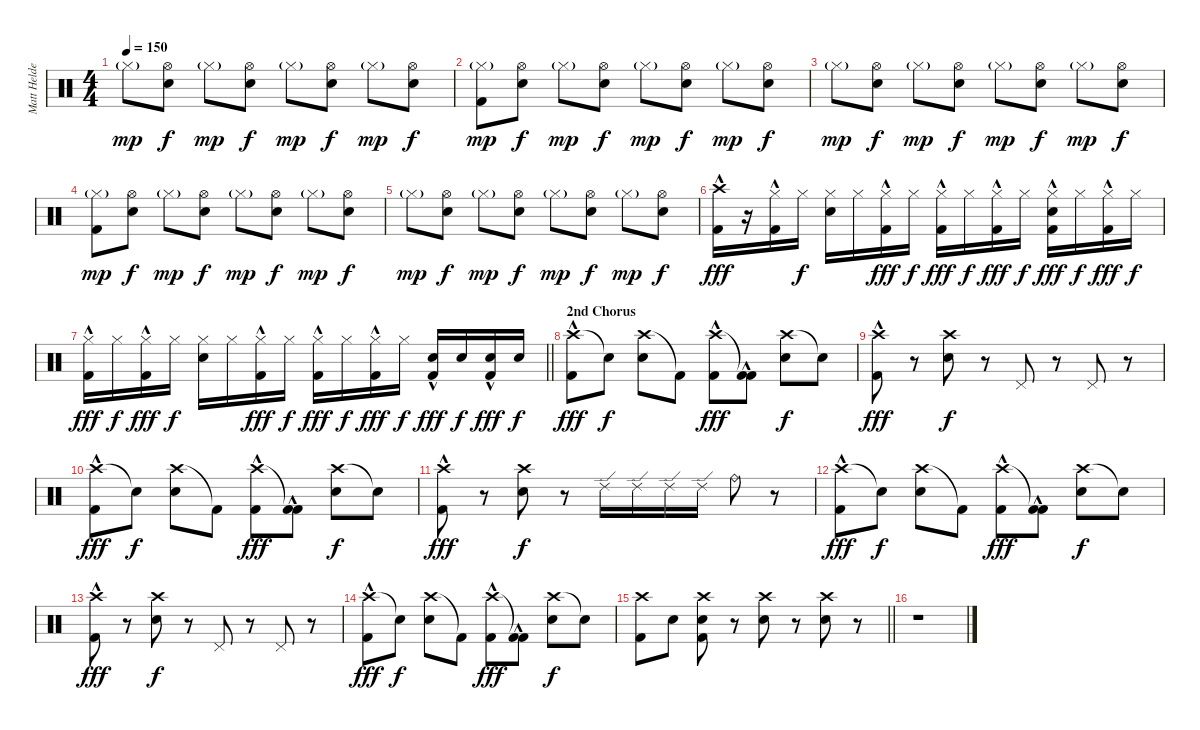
\track ("Matt Helders" "Matt Helde") {instrument percussion}
\staff {score}
\articulation defaults
\ts (4 4)
\tempo 150
\clef neutral
\ks c "Hi-Hat (closed)"{g}.8{dy mp}
("Hi-Hat (open)" "Snare (hit) 2").8{dy f} "Hi-Hat (closed)"{g}.8{dy mp} ("Hi-Hat (open)" "Snare (hit) 2").8{dy f} "Hi-Hat (closed)"{g}.8{dy mp} ("Hi-Hat (open)" "Snare (hit) 2").8{dy f} "Hi-Hat (closed)"{g}.8{dy mp} ("Hi-Hat (open)" "Snare (hit) 2").8{dy f} |
("Hi-Hat (closed)"{g} "Kick (hit) 2").8{dy mp} ("Hi-Hat (open)" "Snare (hit) 2").8{dy f} "Hi-Hat (closed)"{g}.8{dy mp} ("Hi-Hat (open)" "Snare (hit) 2").8{dy f} "Hi-Hat (closed)"{g}.8{dy mp} ("Hi-Hat (open)" "Snare (hit) 2").8{dy f} "Hi-Hat (closed)"{g}.8{dy mp} ("Hi-Hat (open)" "Snare (hit) 2").8{dy f} |
"Hi-Hat (closed)"{g}.8{dy mp} ("Hi-Hat (open)" "Snare (hit) 2").8{dy f} "Hi-Hat (closed)"{g}.8{dy mp} ("Hi-Hat (open)" "Snare (hit) 2").8{dy f} "Hi-Hat (closed)"{g}.8{dy mp} ("Hi-Hat (open)" "Snare (hit) 2").8{dy f} "Hi-Hat (closed)"{g}.8{dy mp} ("Hi-Hat (open)" "Snare (hit) 2").8{dy f} |
("Hi-Hat (closed)"{g} "Kick (hit) 2").8{dy mp} ("Hi-Hat (open)" "Snare (hit) 2").8{dy f} "Hi-Hat (closed)"{g}.8{dy mp} ("Hi-Hat (open)" "Snare (hit) 2").8{dy f} "Hi-Hat (closed)"{g}.8{dy mp} ("Hi-Hat (open)" "Snare (hit) 2").8{dy f} "Hi-Hat (closed)"{g}.8{dy mp} ("Hi-Hat (open)" "Snare (hit) 2").8{dy f} |
"Hi-Hat (closed)"{g}.8{dy mp} ("Hi-Hat (open)" "Snare (hit) 2").8{dy f} "Hi-Hat (closed)"{g}.8{dy mp} ("Hi-Hat (open)" "Snare (hit) 2").8{dy f} "Hi-Hat (closed)"{g}.8{dy mp} ("Hi-Hat (open)" "Snare (hit) 2").8{dy f} "Hi-Hat (closed)"{g}.8{dy mp} ("Hi-Hat (open)" "Snare (hit) 2").8{dy f} |
("Crash high (hit)" "Kick (hit) 2"{hac}).16{dy fff} r.16 ("Hi-Hat (closed)" "Kick (hit) 2"{hac}).16 "Hi-Hat (closed)".16{dy f} ("Hi-Hat (closed)" "Snare (hit) 2").16 "Hi-Hat (closed)".16 ("Hi-Hat (closed)" "Kick (hit) 2"{hac}).16{dy fff} "Hi-Hat (closed)".16{dy f} ("Hi-Hat (closed)" "Kick (hit) 2"{hac}).16{dy fff} "Hi-Hat (closed)".16{dy f} ("Hi-Hat (closed)" "Kick (hit) 2"{hac}).16{dy fff} "Hi-Hat (closed)".16{dy f} ("Hi-Hat (closed)" "Snare (hit) 2" "Kick (hit) 2"{hac}).16{dy fff} "Hi-Hat (closed)".16{dy f} ("Hi-Hat (closed)" "Kick (hit) 2"{hac}).16{dy fff} "Hi-Hat (closed)".16{dy f} |
\barLineRight lightlight
("Hi-Hat (closed)" "Kick (hit) 2"{hac}).16{dy fff} "Hi-Hat (closed)".16{dy f} ("Hi-Hat (closed)" "Kick (hit) 2"{hac}).16{dy fff} "Hi-Hat (closed)".16{dy f} ("Hi-Hat (closed)" "Snare (hit) 2").16 "Hi-Hat (closed)".16 ("Hi-Hat (closed)" "Kick (hit) 2"{hac}).16{dy fff} "Hi-Hat (closed)".16{dy f} ("Hi-Hat (closed)" "Kick (hit) 2"{hac}).16{dy fff} "Hi-Hat (closed)".16{dy f} ("Hi-Hat (closed)" "Kick (hit) 2"{hac}).16{dy fff} "Hi-Hat (closed)".16{dy f} ("Snare (hit) 2" "Kick (hit) 2"{hac}).16{dy fff} "Snare (hit) 2".16{dy f} ("Snare (hit) 2" "Kick (hit) 2"{hac}).16{dy fff} "Snare (hit) 2".16{dy f} |
\section ("" "2nd Chorus")
("Crash high (hit)" "Kick (hit) 2"{hac}).8{dy fff} "Snare (hit)"{t}.8{dy f} ("Crash high (hit)" "Snare (hit) 2").8 "Kick (hit) 2"{t}.8 ("Crash high (hit)" "Kick (hit) 2"{hac}).8{dy fff} ("Kick (hit) 2"{t} "Kick (hit) 2"{hac}).8 ("Crash high (hit)" "Snare (hit) 2").8{dy f} "Snare (hit)"{t}.8 |
("Crash high (hit)" "Kick (hit) 2"{hac}).8{dy fff} r.8 ("Crash high (hit)" "Snare (hit) 2").8{dy f} r.8 "Pedal Hi-Hat (hit)".8 r.8 "Pedal Hi-Hat (hit)".8 r.8 |
("Crash high (hit)" "Kick (hit) 2"{hac}).8{dy fff} "Snare (hit)"{t}.8{dy f} ("Crash high (hit)" "Snare (hit) 2").8 "Kick (hit) 2"{t}.8 ("Crash high (hit)" "Kick (hit) 2"{hac}).8{dy fff} ("Kick (hit) 2"{t} "Kick (hit) 2"{hac}).8 ("Crash high (hit)" "Snare (hit) 2").8{dy f} "Snare (hit)"{t}.8 |
("Crash high (hit)" "Kick (hit) 2"{hac}).8{dy fff} r.8 ("Crash high (hit)" "Snare (hit) 2").8{dy f} r.8 "Ride (edge) 2".16 "Ride (edge) 2".16 "Ride (edge) 2".16 "Ride (edge) 2".16 "Ride (bell)".8 r.8 |
("Crash high (hit)" "Kick (hit) 2"{hac}).8{dy fff} "Snare (hit)"{t}.8{dy f} ("Crash high (hit)" "Snare (hit) 2").8 "Kick (hit) 2"{t}.8 ("Crash high (hit)" "Kick (hit) 2"{hac}).8{dy fff} ("Kick (hit) 2"{t} "Kick (hit) 2"{hac}).8 ("Crash high (hit)" "Snare (hit) 2").8{dy f} "Snare (hit)"{t}.8 |
("Crash high (hit)" "Kick (hit) 2"{hac}).8{dy fff} r.8 ("Crash high (hit)" "Snare (hit) 2").8{dy f} r.8 "Pedal Hi-Hat (hit)".8 r.8 "Pedal Hi-Hat (hit)".8 r.8 |
("Crash high (hit)" "Kick (hit) 2"{hac}).8{dy fff} "Snare (hit)"{t}.8{dy f} ("Crash high (hit)" "Snare (hit) 2").8 "Kick (hit) 2"{t}.8 ("Crash high (hit)" "Kick (hit) 2"{hac}).8{dy fff} ("Kick (hit) 2"{t} "Kick (hit) 2"{hac}).8 ("Crash high (hit)" "Snare (hit) 2").8{dy f} "Snare (hit)"{t}.8 |
\barLineRight lightlight
("Crash high (hit)" "Kick (hit) 2").8 "Snare (hit) 2".8 ("Crash high (hit)" "Snare (hit) 2" "Kick (hit) 2").8 r.8 ("Crash high (hit)" "Snare (hit) 2").8 r.8 ("Crash high (hit)" "Snare (hit) 2").8 r.8 |
r.1
